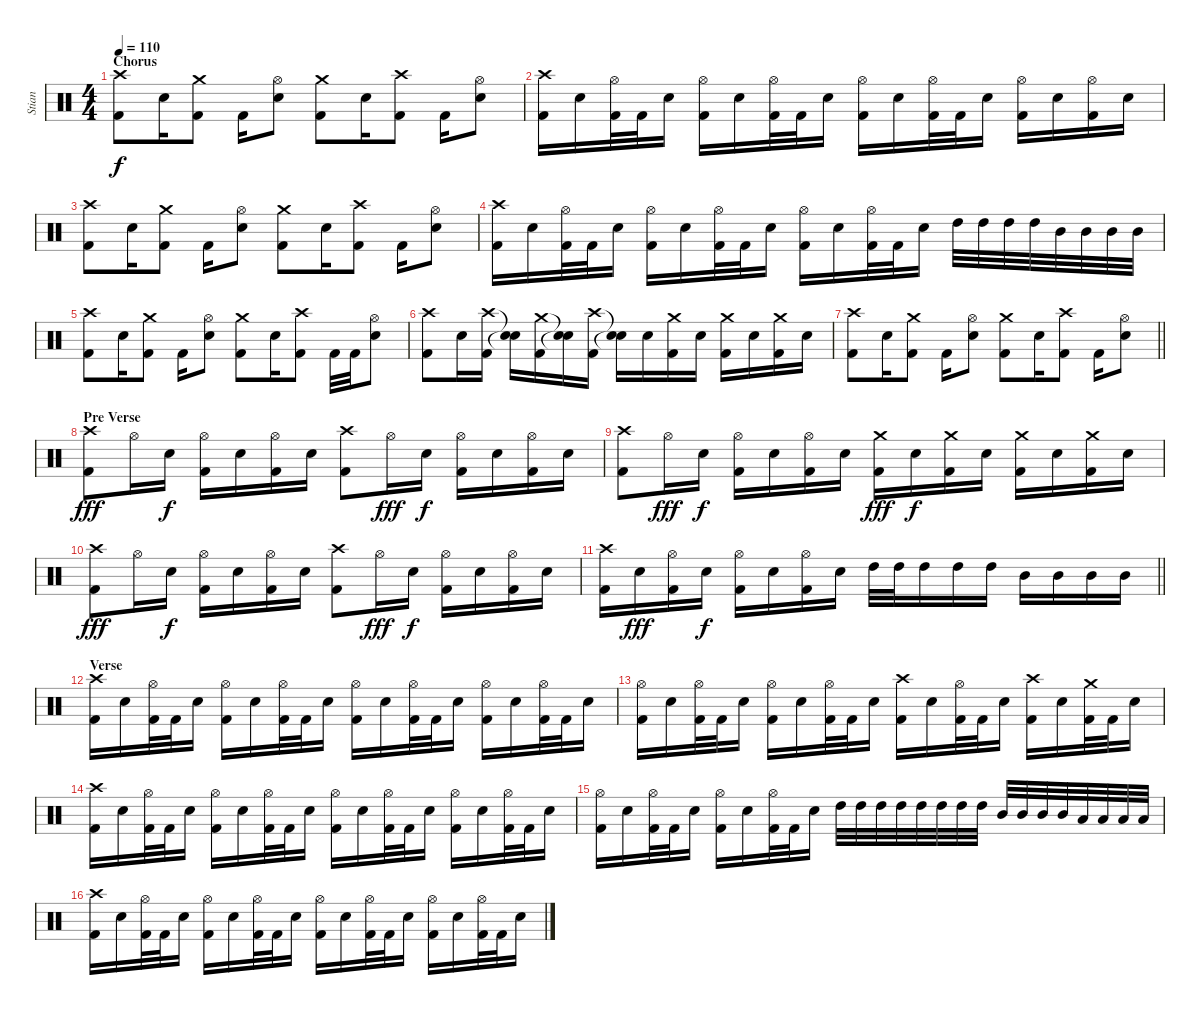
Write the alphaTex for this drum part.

\track ("Stian" "Stian") {instrument percussion}
\staff {score}
\articulation defaults
\ts (4 4)
\section ("" "Chorus")
\tempo 110
\clef neutral
\ks c
("Crash high (hit)" "Kick (hit) 2").8{dy f} "Electric Snare (hit)".16 ("Crash medium (hit)" "Kick (hit) 2").8 "Kick (hit) 2".16 ("Hi-Hat (open)" "Electric Snare (hit)").8 ("Crash medium (hit)" "Kick (hit) 2").8 "Electric Snare (hit)".16 ("Crash high (hit)" "Kick (hit) 2").8 "Kick (hit) 2".16 ("Hi-Hat (open)" "Electric Snare (hit)").8 |
("Crash high (hit)" "Kick (hit) 2").16 "Electric Snare (hit)".16 ("Hi-Hat (open)" "Kick (hit) 2").32 "Kick (hit) 2".32 "Electric Snare (hit)".16 ("Hi-Hat (open)" "Kick (hit) 2").16 "Electric Snare (hit)".16 ("Hi-Hat (open)" "Kick (hit) 2").32 "Kick (hit) 2".32 "Electric Snare (hit)".16 ("Hi-Hat (open)" "Kick (hit) 2").16 "Electric Snare (hit)".16 ("Hi-Hat (open)" "Kick (hit) 2").32 "Kick (hit) 2".32 "Electric Snare (hit)".16 ("Hi-Hat (open)" "Kick (hit) 2").16 "Electric Snare (hit)".16 ("Hi-Hat (open)" "Kick (hit) 2").16 "Electric Snare (hit)".16 |
("Crash high (hit)" "Kick (hit) 2").8 "Electric Snare (hit)".16 ("Crash medium (hit)" "Kick (hit) 2").8 "Kick (hit) 2".16 ("Hi-Hat (open)" "Electric Snare (hit)").8 ("Crash medium (hit)" "Kick (hit) 2").8 "Electric Snare (hit)".16 ("Crash high (hit)" "Kick (hit) 2").8 "Kick (hit) 2".16 ("Hi-Hat (open)" "Electric Snare (hit)").8 |
("Crash high (hit)" "Kick (hit) 2").16 "Electric Snare (hit)".16 ("Hi-Hat (open)" "Kick (hit) 2").32 "Kick (hit) 2".32 "Electric Snare (hit)".16 ("Hi-Hat (open)" "Kick (hit) 2").16 "Electric Snare (hit)".16 ("Hi-Hat (open)" "Kick (hit) 2").32 "Kick (hit) 2".32 "Electric Snare (hit)".16 ("Hi-Hat (open)" "Kick (hit) 2").16 "Electric Snare (hit)".16 ("Hi-Hat (open)" "Kick (hit) 2").32 "Kick (hit) 2".32 "Electric Snare (hit)".16 "High Tom (hit)".32 "High Tom (hit)".32 "High Tom (hit)".32 "High Tom (hit)".32 "Mid Tom (hit)".32 "Mid Tom (hit)".32 "Mid Tom (hit)".32 "Mid Tom (hit)".32 |
("Crash high (hit)" "Kick (hit) 2").8 "Electric Snare (hit)".16 ("Crash medium (hit)" "Kick (hit) 2").8 "Kick (hit) 2".16 ("Hi-Hat (open)" "Electric Snare (hit)").8 ("Crash medium (hit)" "Kick (hit) 2").8 "Electric Snare (hit)".16 ("Crash high (hit)" "Kick (hit) 2").8 "Kick (hit) 2".32 "Kick (hit) 2".32 ("Hi-Hat (open)" "Electric Snare (hit)").8 |
("Crash high (hit)" "Kick (hit) 2").8 "Electric Snare (hit)".16 ("Crash high (hit)" "Kick (hit) 2").16 ("Snare (hit)"{t} "Snare (hit)"{t}).16 ("Crash medium (hit)" "Kick (hit) 2").16 ("Snare (hit)"{t} "Snare (hit)"{t}).16 ("Crash high (hit)" "Kick (hit) 2").16 ("Snare (hit)"{t} "Snare (hit)"{t}).16 "Electric Snare (hit)".16 ("Crash medium (hit)" "Kick (hit) 2").16 "Electric Snare (hit)".16 ("Crash medium (hit)" "Kick (hit) 2").16 "Electric Snare (hit)".16 ("Crash medium (hit)" "Kick (hit) 2").16 "Electric Snare (hit)".16 |
\barLineRight lightlight
("Crash high (hit)" "Kick (hit) 2").8 "Electric Snare (hit)".16 ("Crash medium (hit)" "Kick (hit) 2").8 "Kick (hit) 2".16 ("Hi-Hat (open)" "Electric Snare (hit)").8 ("Crash medium (hit)" "Kick (hit) 2").8 "Electric Snare (hit)".16 ("Crash high (hit)" "Kick (hit) 2").8 "Kick (hit) 2".16 ("Hi-Hat (open)" "Electric Snare (hit)").8 |
\section ("" "Pre Verse")
("Crash high (hit)" "Kick (hit) 2").8{dy fff} "Hi-Hat (open)".16 "Electric Snare (hit)".16{dy f} ("Hi-Hat (open)" "Kick (hit) 2").16 "Electric Snare (hit)".16 ("Hi-Hat (open)" "Kick (hit) 2").16 "Electric Snare (hit)".16 ("Crash high (hit)" "Kick (hit) 2").8 "Hi-Hat (open)".16{dy fff} "Electric Snare (hit)".16{dy f} ("Hi-Hat (open)" "Kick (hit) 2").16 "Electric Snare (hit)".16 ("Hi-Hat (open)" "Kick (hit) 2").16 "Electric Snare (hit)".16 |
("Crash high (hit)" "Kick (hit) 2").8 "Hi-Hat (open)".16{dy fff} "Electric Snare (hit)".16{dy f} ("Hi-Hat (open)" "Kick (hit) 2").16 "Electric Snare (hit)".16 ("Hi-Hat (open)" "Kick (hit) 2").16 "Electric Snare (hit)".16 ("Crash medium (hit)" "Kick (hit) 2").16{dy fff} "Electric Snare (hit)".16{dy f} ("Crash medium (hit)" "Kick (hit) 2").16 "Electric Snare (hit)".16 ("Crash medium (hit)" "Kick (hit) 2").16 "Electric Snare (hit)".16 ("Crash medium (hit)" "Kick (hit) 2").16 "Electric Snare (hit)".16 |
("Crash high (hit)" "Kick (hit) 2").8{dy fff} "Hi-Hat (open)".16 "Electric Snare (hit)".16{dy f} ("Hi-Hat (open)" "Kick (hit) 2").16 "Electric Snare (hit)".16 ("Hi-Hat (open)" "Kick (hit) 2").16 "Electric Snare (hit)".16 ("Crash high (hit)" "Kick (hit) 2").8 "Hi-Hat (open)".16{dy fff} "Electric Snare (hit)".16{dy f} ("Hi-Hat (open)" "Kick (hit) 2").16 "Electric Snare (hit)".16 ("Hi-Hat (open)" "Kick (hit) 2").16 "Electric Snare (hit)".16 |
\barLineRight lightlight
("Crash high (hit)" "Kick (hit) 2").16 "Electric Snare (hit)".16{dy fff} ("Hi-Hat (open)" "Kick (hit) 2").16 "Electric Snare (hit)".16{dy f} ("Hi-Hat (open)" "Kick (hit) 2").16 "Electric Snare (hit)".16 ("Hi-Hat (open)" "Kick (hit) 2").16 "Electric Snare (hit)".16 "High Tom (hit)".32 "High Tom (hit)".32 "High Tom (hit)".16 "High Tom (hit)".16 "High Tom (hit)".16 "Mid Tom (hit)".16 "Mid Tom (hit)".16 "Mid Tom (hit)".16 "Mid Tom (hit)".16 |
\section ("" "Verse")
("Crash high (hit)" "Kick (hit) 2").16 "Electric Snare (hit)".16 ("Hi-Hat (open)" "Kick (hit) 2").32 "Kick (hit) 2".32 "Electric Snare (hit)".16 ("Hi-Hat (open)" "Kick (hit) 2").16 "Electric Snare (hit)".16 ("Hi-Hat (open)" "Kick (hit) 2").32 "Kick (hit) 2".32 "Electric Snare (hit)".16 ("Hi-Hat (open)" "Kick (hit) 2").16 "Electric Snare (hit)".16 ("Hi-Hat (open)" "Kick (hit) 2").32 "Kick (hit) 2".32 "Electric Snare (hit)".16 ("Hi-Hat (open)" "Kick (hit) 2").16 "Electric Snare (hit)".16 ("Hi-Hat (open)" "Kick (hit) 2").32 "Kick (hit) 2".32 "Electric Snare (hit)".16 |
("Hi-Hat (open)" "Kick (hit) 2").16 "Electric Snare (hit)".16 ("Hi-Hat (open)" "Kick (hit) 2").32 "Kick (hit) 2".32 "Electric Snare (hit)".16 ("Hi-Hat (open)" "Kick (hit) 2").16 "Electric Snare (hit)".16 ("Hi-Hat (open)" "Kick (hit) 2").32 "Kick (hit) 2".32 "Electric Snare (hit)".16 ("Crash high (hit)" "Kick (hit) 2").16 "Electric Snare (hit)".16 ("Hi-Hat (open)" "Kick (hit) 2").32 "Kick (hit) 2".32 "Electric Snare (hit)".16 ("Crash high (hit)" "Kick (hit) 2").16 "Electric Snare (hit)".16 ("Crash medium (hit)" "Kick (hit) 2").32 "Kick (hit) 2".32 "Electric Snare (hit)".16 |
("Crash high (hit)" "Kick (hit) 2").16 "Electric Snare (hit)".16 ("Hi-Hat (open)" "Kick (hit) 2").32 "Kick (hit) 2".32 "Electric Snare (hit)".16 ("Hi-Hat (open)" "Kick (hit) 2").16 "Electric Snare (hit)".16 ("Hi-Hat (open)" "Kick (hit) 2").32 "Kick (hit) 2".32 "Electric Snare (hit)".16 ("Hi-Hat (open)" "Kick (hit) 2").16 "Electric Snare (hit)".16 ("Hi-Hat (open)" "Kick (hit) 2").32 "Kick (hit) 2".32 "Electric Snare (hit)".16 ("Hi-Hat (open)" "Kick (hit) 2").16 "Electric Snare (hit)".16 ("Hi-Hat (open)" "Kick (hit) 2").32 "Kick (hit) 2".32 "Electric Snare (hit)".16 |
("Hi-Hat (open)" "Kick (hit) 2").16 "Electric Snare (hit)".16 ("Hi-Hat (open)" "Kick (hit) 2").32 "Kick (hit) 2".32 "Electric Snare (hit)".16 ("Hi-Hat (open)" "Kick (hit) 2").16 "Electric Snare (hit)".16 ("Hi-Hat (open)" "Kick (hit) 2").32 "Kick (hit) 2".32 "Electric Snare (hit)".16 "High Tom (hit)".32 "High Tom (hit)".32 "High Tom (hit)".32 "High Tom (hit)".32 "High Tom (hit)".32 "High Tom (hit)".32 "High Tom (hit)".32 "High Tom (hit)".32 "Mid Tom (hit)".32 "Mid Tom (hit)".32 "Mid Tom (hit)".32 "Mid Tom (hit)".32 "Low Tom (hit)".32 "Low Tom (hit)".32 "Low Tom (hit)".32 "Low Tom (hit)".32 |
("Crash high (hit)" "Kick (hit) 2").16 "Electric Snare (hit)".16 ("Hi-Hat (open)" "Kick (hit) 2").32 "Kick (hit) 2".32 "Electric Snare (hit)".16 ("Hi-Hat (open)" "Kick (hit) 2").16 "Electric Snare (hit)".16 ("Hi-Hat (open)" "Kick (hit) 2").32 "Kick (hit) 2".32 "Electric Snare (hit)".16 ("Hi-Hat (open)" "Kick (hit) 2").16 "Electric Snare (hit)".16 ("Hi-Hat (open)" "Kick (hit) 2").32 "Kick (hit) 2".32 "Electric Snare (hit)".16 ("Hi-Hat (open)" "Kick (hit) 2").16 "Electric Snare (hit)".16 ("Hi-Hat (open)" "Kick (hit) 2").32 "Kick (hit) 2".32 "Electric Snare (hit)".16
